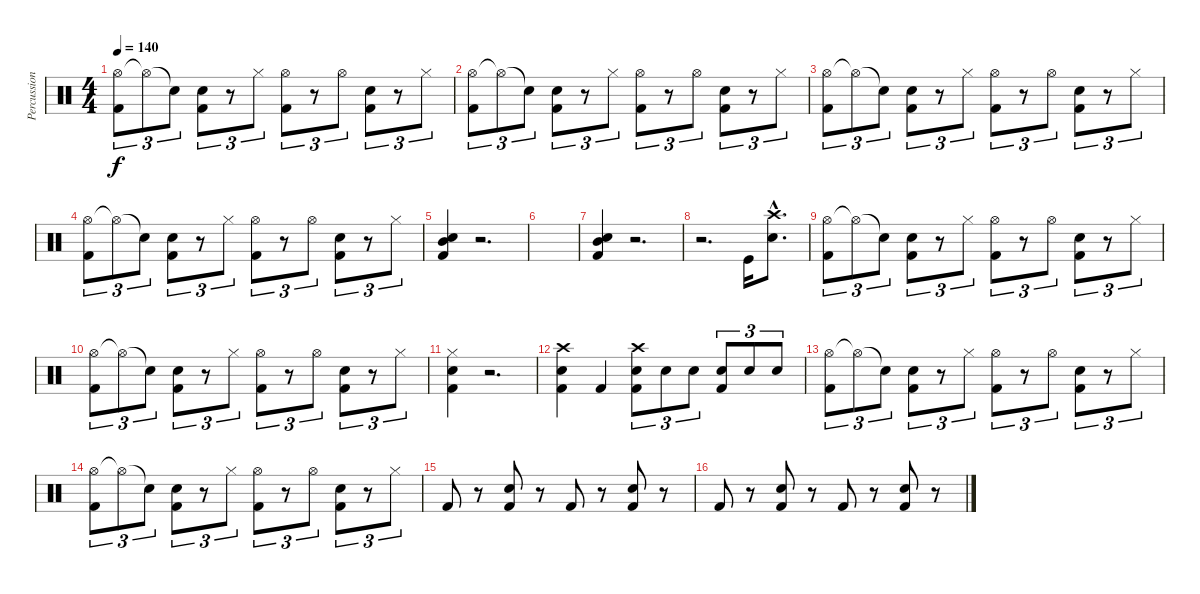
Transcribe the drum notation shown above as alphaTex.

\track ("Percussion" "Percussion") {instrument percussion}
\staff {score}
\articulation defaults
\ts (4 4)
\tempo 140
\clef neutral
\ks c
("Hi-Hat (open)" "Kick (hit) 2").8{tu (3 2) dy f} "Hi-Hat (open)"{t}.8{tu (3 2)} "Snare (hit)"{t}.8{tu (3 2)} ("Snare (hit) 2" "Kick (hit) 2").8{tu (3 2)} r.8{tu (3 2)} "Hi-Hat (closed)".8{tu (3 2)} ("Hi-Hat (open)" "Kick (hit) 2").8{tu (3 2)} r.8{tu (3 2)} "Hi-Hat (open)".8{tu (3 2)} ("Snare (hit) 2" "Kick (hit) 2").8{tu (3 2)} r.8{tu (3 2)} "Hi-Hat (closed)".8{tu (3 2)} |
("Hi-Hat (open)" "Kick (hit) 2").8{tu (3 2)} "Hi-Hat (open)"{t}.8{tu (3 2)} "Snare (hit)"{t}.8{tu (3 2)} ("Snare (hit) 2" "Kick (hit) 2").8{tu (3 2)} r.8{tu (3 2)} "Hi-Hat (closed)".8{tu (3 2)} ("Hi-Hat (open)" "Kick (hit) 2").8{tu (3 2)} r.8{tu (3 2)} "Hi-Hat (open)".8{tu (3 2)} ("Snare (hit) 2" "Kick (hit) 2").8{tu (3 2)} r.8{tu (3 2)} "Hi-Hat (closed)".8{tu (3 2)} |
("Hi-Hat (open)" "Kick (hit) 2").8{tu (3 2)} "Hi-Hat (open)"{t}.8{tu (3 2)} "Snare (hit)"{t}.8{tu (3 2)} ("Snare (hit) 2" "Kick (hit) 2").8{tu (3 2)} r.8{tu (3 2)} "Hi-Hat (closed)".8{tu (3 2)} ("Hi-Hat (open)" "Kick (hit) 2").8{tu (3 2)} r.8{tu (3 2)} "Hi-Hat (open)".8{tu (3 2)} ("Snare (hit) 2" "Kick (hit) 2").8{tu (3 2)} r.8{tu (3 2)} "Hi-Hat (closed)".8{tu (3 2)} |
("Hi-Hat (open)" "Kick (hit) 2").8{tu (3 2)} "Hi-Hat (open)"{t}.8{tu (3 2)} "Snare (hit)"{t}.8{tu (3 2)} ("Snare (hit) 2" "Kick (hit) 2").8{tu (3 2)} r.8{tu (3 2)} "Hi-Hat (closed)".8{tu (3 2)} ("Hi-Hat (open)" "Kick (hit) 2").8{tu (3 2)} r.8{tu (3 2)} "Hi-Hat (open)".8{tu (3 2)} ("Snare (hit) 2" "Kick (hit) 2").8{tu (3 2)} r.8{tu (3 2)} "Hi-Hat (closed)".8{tu (3 2)} |
("Mid Tom (hit)" "Snare (hit) 2" "Kick (hit) 2").4 r.2{d} |
|
("Mid Tom (hit)" "Snare (hit) 2" "Kick (hit) 2").4 r.2{d} |
r.2{d} "Kick (hit)".16 ("Crash high (hit)"{hac} "Snare (hit) 2"{hac}).8{d} |
("Hi-Hat (open)" "Kick (hit) 2").8{tu (3 2)} "Hi-Hat (open)"{t}.8{tu (3 2)} "Snare (hit)"{t}.8{tu (3 2)} ("Snare (hit) 2" "Kick (hit) 2").8{tu (3 2)} r.8{tu (3 2)} "Hi-Hat (closed)".8{tu (3 2)} ("Hi-Hat (open)" "Kick (hit) 2").8{tu (3 2)} r.8{tu (3 2)} "Hi-Hat (open)".8{tu (3 2)} ("Snare (hit) 2" "Kick (hit) 2").8{tu (3 2)} r.8{tu (3 2)} "Hi-Hat (closed)".8{tu (3 2)} |
("Hi-Hat (open)" "Kick (hit) 2").8{tu (3 2)} "Hi-Hat (open)"{t}.8{tu (3 2)} "Snare (hit)"{t}.8{tu (3 2)} ("Snare (hit) 2" "Kick (hit) 2").8{tu (3 2)} r.8{tu (3 2)} "Hi-Hat (closed)".8{tu (3 2)} ("Hi-Hat (open)" "Kick (hit) 2").8{tu (3 2)} r.8{tu (3 2)} "Hi-Hat (open)".8{tu (3 2)} ("Snare (hit) 2" "Kick (hit) 2").8{tu (3 2)} r.8{tu (3 2)} "Hi-Hat (closed)".8{tu (3 2)} |
("Hi-Hat (closed)" "Snare (hit) 2" "Kick (hit) 2").4 r.2{d} |
("Crash high (hit)" "Snare (hit) 2" "Kick (hit) 2").4 "Kick (hit) 2".4 ("Crash high (hit)" "Snare (hit) 2" "Kick (hit) 2").8{tu (3 2)} "Snare (hit) 2".8{tu (3 2)} "Snare (hit) 2".8{tu (3 2)} ("Snare (hit) 2" "Kick (hit) 2").8{tu (3 2)} "Snare (hit) 2".8{tu (3 2)} "Snare (hit) 2".8{tu (3 2)} |
("Hi-Hat (open)" "Kick (hit) 2").8{tu (3 2)} "Hi-Hat (open)"{t}.8{tu (3 2)} "Snare (hit)"{t}.8{tu (3 2)} ("Snare (hit) 2" "Kick (hit) 2").8{tu (3 2)} r.8{tu (3 2)} "Hi-Hat (closed)".8{tu (3 2)} ("Hi-Hat (open)" "Kick (hit) 2").8{tu (3 2)} r.8{tu (3 2)} "Hi-Hat (open)".8{tu (3 2)} ("Snare (hit) 2" "Kick (hit) 2").8{tu (3 2)} r.8{tu (3 2)} "Hi-Hat (closed)".8{tu (3 2)} |
("Hi-Hat (open)" "Kick (hit) 2").8{tu (3 2)} "Hi-Hat (open)"{t}.8{tu (3 2)} "Snare (hit)"{t}.8{tu (3 2)} ("Snare (hit) 2" "Kick (hit) 2").8{tu (3 2)} r.8{tu (3 2)} "Hi-Hat (closed)".8{tu (3 2)} ("Hi-Hat (open)" "Kick (hit) 2").8{tu (3 2)} r.8{tu (3 2)} "Hi-Hat (open)".8{tu (3 2)} ("Snare (hit) 2" "Kick (hit) 2").8{tu (3 2)} r.8{tu (3 2)} "Hi-Hat (closed)".8{tu (3 2)} |
"Kick (hit) 2".8 r.8 ("Snare (hit) 2" "Kick (hit) 2").8 r.8 "Kick (hit) 2".8 r.8 ("Snare (hit) 2" "Kick (hit) 2").8 r.8 |
"Kick (hit) 2".8 r.8 ("Snare (hit) 2" "Kick (hit) 2").8 r.8 "Kick (hit) 2".8 r.8 ("Snare (hit) 2" "Kick (hit) 2").8 r.8
